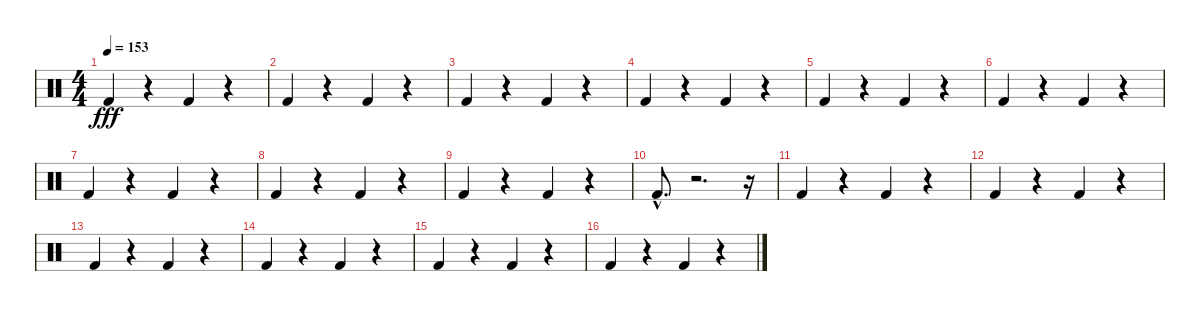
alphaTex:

\track "" {instrument percussion}
\staff {score}
\articulation defaults
\ts (4 4)
\tempo 153
\clef neutral
\ks c "Kick (hit) 2".4{dy fff}
r.4 "Kick (hit) 2".4 r.4 |
"Kick (hit) 2".4 r.4 "Kick (hit) 2".4 r.4 |
"Kick (hit) 2".4 r.4 "Kick (hit) 2".4 r.4 |
"Kick (hit) 2".4 r.4 "Kick (hit) 2".4 r.4 |
"Kick (hit) 2".4 r.4 "Kick (hit) 2".4 r.4 |
"Kick (hit) 2".4 r.4 "Kick (hit) 2".4 r.4 |
"Kick (hit) 2".4 r.4 "Kick (hit) 2".4 r.4 |
"Kick (hit) 2".4 r.4 "Kick (hit) 2".4 r.4 |
"Kick (hit) 2".4 r.4 "Kick (hit) 2".4 r.4 |
"Kick (hit) 2"{hac}.8{d} r.2{d} r.16 |
"Kick (hit) 2".4 r.4 "Kick (hit) 2".4 r.4 |
"Kick (hit) 2".4 r.4 "Kick (hit) 2".4 r.4 |
"Kick (hit) 2".4 r.4 "Kick (hit) 2".4 r.4 |
"Kick (hit) 2".4 r.4 "Kick (hit) 2".4 r.4 |
"Kick (hit) 2".4 r.4 "Kick (hit) 2".4 r.4 |
"Kick (hit) 2".4 r.4 "Kick (hit) 2".4 r.4
